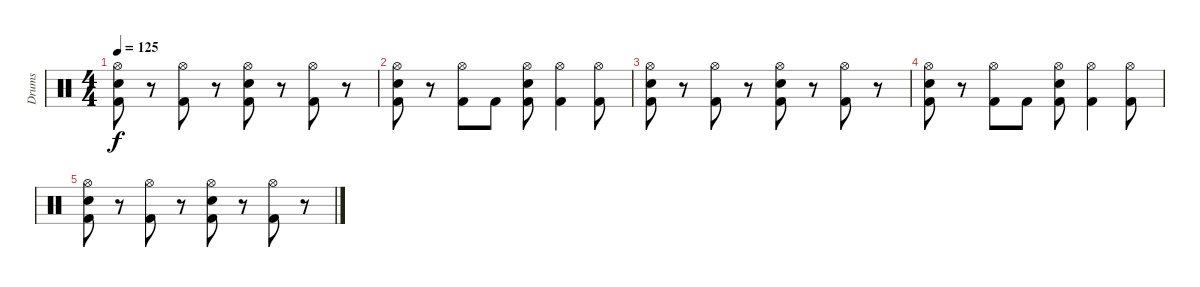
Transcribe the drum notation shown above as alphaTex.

\track ("Drums" "Drums") {instrument percussion}
\staff {score}
\articulation defaults
\ts (4 4)
\tempo 125
\clef neutral
\ks c
("Kick (hit) 2" "Snare (hit) 2" "Hi-Hat (open)").8{dy f} r.8 ("Kick (hit) 2" "Hi-Hat (open)").8 r.8 ("Kick (hit) 2" "Snare (hit) 2" "Hi-Hat (open)").8 r.8 ("Kick (hit) 2" "Hi-Hat (open)").8 r.8 |
("Kick (hit) 2" "Snare (hit) 2" "Hi-Hat (open)").8 r.8 ("Kick (hit) 2" "Hi-Hat (open)").8 "Kick (hit) 2".8 ("Kick (hit) 2" "Snare (hit) 2" "Hi-Hat (open)").8 ("Kick (hit) 2" "Hi-Hat (open)").4 ("Kick (hit) 2" "Hi-Hat (open)").8 |
("Kick (hit) 2" "Snare (hit) 2" "Hi-Hat (open)").8 r.8 ("Kick (hit) 2" "Hi-Hat (open)").8 r.8 ("Kick (hit) 2" "Snare (hit) 2" "Hi-Hat (open)").8 r.8 ("Kick (hit) 2" "Hi-Hat (open)").8 r.8 |
("Kick (hit) 2" "Snare (hit) 2" "Hi-Hat (open)").8 r.8 ("Kick (hit) 2" "Hi-Hat (open)").8 "Kick (hit) 2".8 ("Kick (hit) 2" "Snare (hit) 2" "Hi-Hat (open)").8 ("Kick (hit) 2" "Hi-Hat (open)").4 ("Kick (hit) 2" "Hi-Hat (open)").8 |
("Kick (hit) 2" "Snare (hit) 2" "Hi-Hat (open)").8 r.8 ("Kick (hit) 2" "Hi-Hat (open)").8 r.8 ("Kick (hit) 2" "Snare (hit) 2" "Hi-Hat (open)").8 r.8 ("Kick (hit) 2" "Hi-Hat (open)").8 r.8
